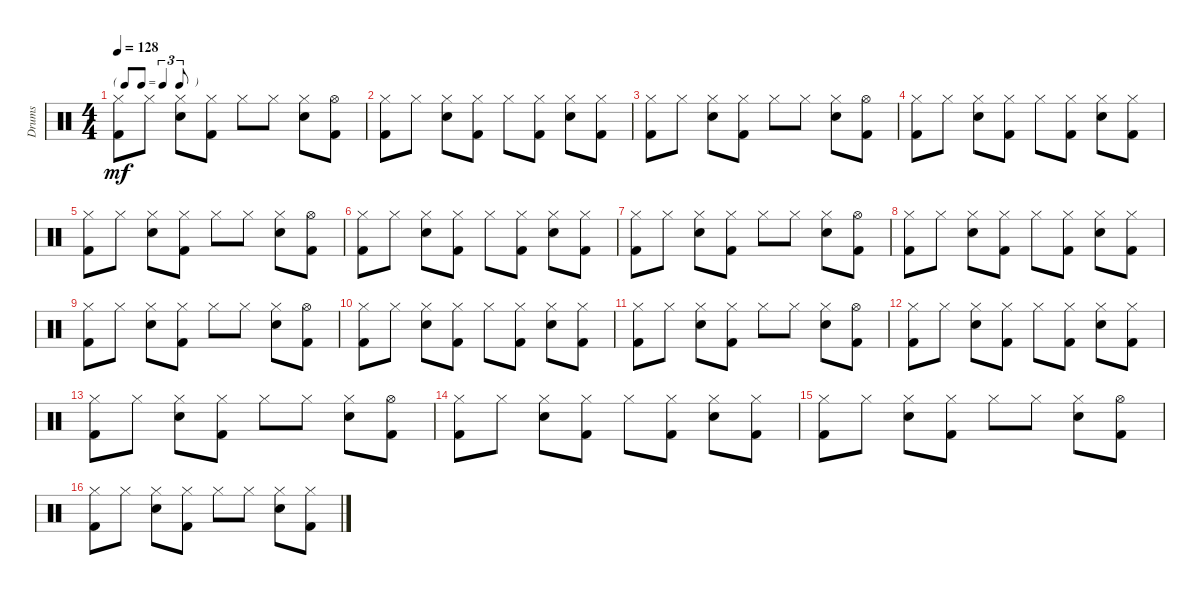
\track ("Drums" "Drums") {instrument percussion}
\staff {score}
\articulation defaults
\ts (4 4)
\tf triplet8th
\tempo 128
\clef neutral
\ks c
("Hi-Hat (closed)" "Kick (hit) 2").8{dy mf} "Hi-Hat (closed)".8 ("Hi-Hat (closed)" "Electric Snare (hit)").8 ("Hi-Hat (closed)" "Kick (hit) 2").8 "Hi-Hat (closed)".8 "Hi-Hat (closed)".8 ("Hi-Hat (closed)" "Electric Snare (hit)").8 ("Hi-Hat (open)" "Kick (hit) 2").8 |
("Hi-Hat (closed)" "Kick (hit) 2").8 "Hi-Hat (closed)".8 ("Hi-Hat (closed)" "Electric Snare (hit)").8 ("Hi-Hat (closed)" "Kick (hit) 2").8 "Hi-Hat (closed)".8 ("Hi-Hat (closed)" "Kick (hit) 2").8 ("Hi-Hat (closed)" "Electric Snare (hit)").8 ("Hi-Hat (closed)" "Kick (hit) 2").8 |
("Hi-Hat (closed)" "Kick (hit) 2").8 "Hi-Hat (closed)".8 ("Hi-Hat (closed)" "Electric Snare (hit)").8 ("Hi-Hat (closed)" "Kick (hit) 2").8 "Hi-Hat (closed)".8 "Hi-Hat (closed)".8 ("Hi-Hat (closed)" "Electric Snare (hit)").8 ("Hi-Hat (open)" "Kick (hit) 2").8 |
("Hi-Hat (closed)" "Kick (hit) 2").8 "Hi-Hat (closed)".8 ("Hi-Hat (closed)" "Electric Snare (hit)").8 ("Hi-Hat (closed)" "Kick (hit) 2").8 "Hi-Hat (closed)".8 ("Hi-Hat (closed)" "Kick (hit) 2").8 ("Hi-Hat (closed)" "Electric Snare (hit)").8 ("Hi-Hat (closed)" "Kick (hit) 2").8 |
("Hi-Hat (closed)" "Kick (hit) 2").8 "Hi-Hat (closed)".8 ("Hi-Hat (closed)" "Electric Snare (hit)").8 ("Hi-Hat (closed)" "Kick (hit) 2").8 "Hi-Hat (closed)".8 "Hi-Hat (closed)".8 ("Hi-Hat (closed)" "Electric Snare (hit)").8 ("Hi-Hat (open)" "Kick (hit) 2").8 |
("Hi-Hat (closed)" "Kick (hit) 2").8 "Hi-Hat (closed)".8 ("Hi-Hat (closed)" "Electric Snare (hit)").8 ("Hi-Hat (closed)" "Kick (hit) 2").8 "Hi-Hat (closed)".8 ("Hi-Hat (closed)" "Kick (hit) 2").8 ("Hi-Hat (closed)" "Electric Snare (hit)").8 ("Hi-Hat (closed)" "Kick (hit) 2").8 |
("Hi-Hat (closed)" "Kick (hit) 2").8 "Hi-Hat (closed)".8 ("Hi-Hat (closed)" "Electric Snare (hit)").8 ("Hi-Hat (closed)" "Kick (hit) 2").8 "Hi-Hat (closed)".8 "Hi-Hat (closed)".8 ("Hi-Hat (closed)" "Electric Snare (hit)").8 ("Hi-Hat (open)" "Kick (hit) 2").8 |
("Hi-Hat (closed)" "Kick (hit) 2").8 "Hi-Hat (closed)".8 ("Hi-Hat (closed)" "Electric Snare (hit)").8 ("Hi-Hat (closed)" "Kick (hit) 2").8 "Hi-Hat (closed)".8 ("Hi-Hat (closed)" "Kick (hit) 2").8 ("Hi-Hat (closed)" "Electric Snare (hit)").8 ("Hi-Hat (closed)" "Kick (hit) 2").8 |
("Hi-Hat (closed)" "Kick (hit) 2").8 "Hi-Hat (closed)".8 ("Hi-Hat (closed)" "Electric Snare (hit)").8 ("Hi-Hat (closed)" "Kick (hit) 2").8 "Hi-Hat (closed)".8 "Hi-Hat (closed)".8 ("Hi-Hat (closed)" "Electric Snare (hit)").8 ("Hi-Hat (open)" "Kick (hit) 2").8 |
("Hi-Hat (closed)" "Kick (hit) 2").8 "Hi-Hat (closed)".8 ("Hi-Hat (closed)" "Electric Snare (hit)").8 ("Hi-Hat (closed)" "Kick (hit) 2").8 "Hi-Hat (closed)".8 ("Hi-Hat (closed)" "Kick (hit) 2").8 ("Hi-Hat (closed)" "Electric Snare (hit)").8 ("Hi-Hat (closed)" "Kick (hit) 2").8 |
("Hi-Hat (closed)" "Kick (hit) 2").8 "Hi-Hat (closed)".8 ("Hi-Hat (closed)" "Electric Snare (hit)").8 ("Hi-Hat (closed)" "Kick (hit) 2").8 "Hi-Hat (closed)".8 "Hi-Hat (closed)".8 ("Hi-Hat (closed)" "Electric Snare (hit)").8 ("Hi-Hat (open)" "Kick (hit) 2").8 |
("Hi-Hat (closed)" "Kick (hit) 2").8 "Hi-Hat (closed)".8 ("Hi-Hat (closed)" "Electric Snare (hit)").8 ("Hi-Hat (closed)" "Kick (hit) 2").8 "Hi-Hat (closed)".8 ("Hi-Hat (closed)" "Kick (hit) 2").8 ("Hi-Hat (closed)" "Electric Snare (hit)").8 ("Hi-Hat (closed)" "Kick (hit) 2").8 |
("Hi-Hat (closed)" "Kick (hit) 2").8 "Hi-Hat (closed)".8 ("Hi-Hat (closed)" "Electric Snare (hit)").8 ("Hi-Hat (closed)" "Kick (hit) 2").8 "Hi-Hat (closed)".8 "Hi-Hat (closed)".8 ("Hi-Hat (closed)" "Electric Snare (hit)").8 ("Hi-Hat (open)" "Kick (hit) 2").8 |
("Hi-Hat (closed)" "Kick (hit) 2").8 "Hi-Hat (closed)".8 ("Hi-Hat (closed)" "Electric Snare (hit)").8 ("Hi-Hat (closed)" "Kick (hit) 2").8 "Hi-Hat (closed)".8 ("Hi-Hat (closed)" "Kick (hit) 2").8 ("Hi-Hat (closed)" "Electric Snare (hit)").8 ("Hi-Hat (closed)" "Kick (hit) 2").8 |
("Hi-Hat (closed)" "Kick (hit) 2").8 "Hi-Hat (closed)".8 ("Hi-Hat (closed)" "Electric Snare (hit)").8 ("Hi-Hat (closed)" "Kick (hit) 2").8 "Hi-Hat (closed)".8 "Hi-Hat (closed)".8 ("Hi-Hat (closed)" "Electric Snare (hit)").8 ("Hi-Hat (open)" "Kick (hit) 2").8 |
("Hi-Hat (closed)" "Kick (hit) 2").8 "Hi-Hat (closed)".8 ("Hi-Hat (closed)" "Electric Snare (hit)").8 ("Hi-Hat (closed)" "Kick (hit) 2").8 "Hi-Hat (closed)".8 "Hi-Hat (closed)".8 ("Hi-Hat (closed)" "Electric Snare (hit)").8 ("Hi-Hat (closed)" "Kick (hit) 2").8
